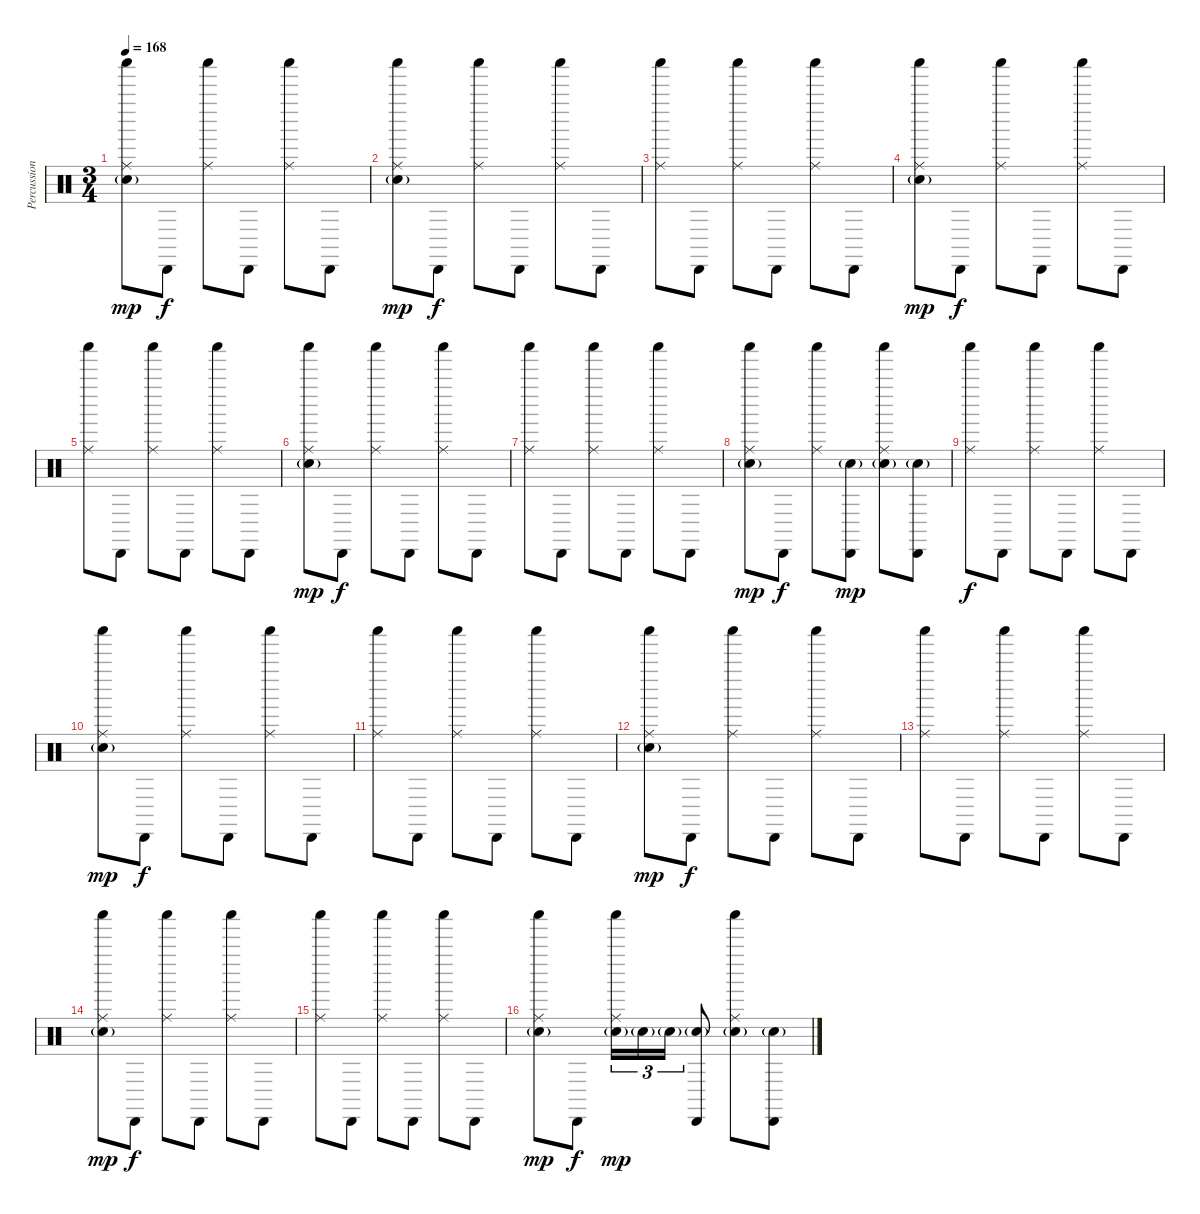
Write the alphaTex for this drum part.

\track ("Percussion" "Percussion") {instrument percussion}
\staff {score}
\articulation defaults
\ts (3 4)
\tempo 168
\clef neutral
\ks c
("Shaker (hit)" "Ride (middle)" "Electric Snare (hit)"{g}).8{dy mp} "Cabasa (hit)".8{dy f} ("Shaker (hit)" "Ride (middle)").8 "Cabasa (hit)".8 ("Shaker (hit)" "Ride (middle)").8 "Cabasa (hit)".8 |
("Shaker (hit)" "Ride (middle)" "Electric Snare (hit)"{g}).8{dy mp} "Cabasa (hit)".8{dy f} ("Shaker (hit)" "Ride (middle)").8 "Cabasa (hit)".8 ("Shaker (hit)" "Ride (middle)").8 "Cabasa (hit)".8 |
("Shaker (hit)" "Ride (middle)").8 "Cabasa (hit)".8 ("Shaker (hit)" "Ride (middle)").8 "Cabasa (hit)".8 ("Shaker (hit)" "Ride (middle)").8 "Cabasa (hit)".8 |
("Shaker (hit)" "Ride (middle)" "Electric Snare (hit)"{g}).8{dy mp} "Cabasa (hit)".8{dy f} ("Shaker (hit)" "Ride (middle)").8 "Cabasa (hit)".8 ("Shaker (hit)" "Ride (middle)").8 "Cabasa (hit)".8 |
("Shaker (hit)" "Ride (middle)").8 "Cabasa (hit)".8 ("Shaker (hit)" "Ride (middle)").8 "Cabasa (hit)".8 ("Shaker (hit)" "Ride (middle)").8 "Cabasa (hit)".8 |
("Shaker (hit)" "Ride (middle)" "Electric Snare (hit)"{g}).8{dy mp} "Cabasa (hit)".8{dy f} ("Shaker (hit)" "Ride (middle)").8 "Cabasa (hit)".8 ("Shaker (hit)" "Ride (middle)").8 "Cabasa (hit)".8 |
("Shaker (hit)" "Ride (middle)").8 "Cabasa (hit)".8 ("Shaker (hit)" "Ride (middle)").8 "Cabasa (hit)".8 ("Shaker (hit)" "Ride (middle)").8 "Cabasa (hit)".8 |
("Shaker (hit)" "Ride (middle)" "Electric Snare (hit)"{g}).8{dy mp} "Cabasa (hit)".8{dy f} ("Shaker (hit)" "Ride (middle)").8 ("Cabasa (hit)" "Electric Snare (hit)"{g}).8{dy mp} ("Shaker (hit)" "Ride (middle)" "Electric Snare (hit)"{g}).8 ("Cabasa (hit)" "Electric Snare (hit)"{g}).8 |
("Shaker (hit)" "Ride (middle)").8{dy f} "Cabasa (hit)".8 ("Shaker (hit)" "Ride (middle)").8 "Cabasa (hit)".8 ("Shaker (hit)" "Ride (middle)").8 "Cabasa (hit)".8 |
("Shaker (hit)" "Ride (middle)" "Electric Snare (hit)"{g}).8{dy mp} "Cabasa (hit)".8{dy f} ("Shaker (hit)" "Ride (middle)").8 "Cabasa (hit)".8 ("Shaker (hit)" "Ride (middle)").8 "Cabasa (hit)".8 |
("Shaker (hit)" "Ride (middle)").8 "Cabasa (hit)".8 ("Shaker (hit)" "Ride (middle)").8 "Cabasa (hit)".8 ("Shaker (hit)" "Ride (middle)").8 "Cabasa (hit)".8 |
("Shaker (hit)" "Ride (middle)" "Electric Snare (hit)"{g}).8{dy mp} "Cabasa (hit)".8{dy f} ("Shaker (hit)" "Ride (middle)").8 "Cabasa (hit)".8 ("Shaker (hit)" "Ride (middle)").8 "Cabasa (hit)".8 |
("Shaker (hit)" "Ride (middle)").8 "Cabasa (hit)".8 ("Shaker (hit)" "Ride (middle)").8 "Cabasa (hit)".8 ("Shaker (hit)" "Ride (middle)").8 "Cabasa (hit)".8 |
("Shaker (hit)" "Ride (middle)" "Electric Snare (hit)"{g}).8{dy mp} "Cabasa (hit)".8{dy f} ("Shaker (hit)" "Ride (middle)").8 "Cabasa (hit)".8 ("Shaker (hit)" "Ride (middle)").8 "Cabasa (hit)".8 |
("Shaker (hit)" "Ride (middle)").8 "Cabasa (hit)".8 ("Shaker (hit)" "Ride (middle)").8 "Cabasa (hit)".8 ("Shaker (hit)" "Ride (middle)").8 "Cabasa (hit)".8 |
("Shaker (hit)" "Ride (middle)" "Electric Snare (hit)"{g}).8{dy mp} "Cabasa (hit)".8{dy f} ("Shaker (hit)" "Ride (middle)" "Electric Snare (hit)"{g}).16{tu (3 2) dy mp} "Electric Snare (hit)"{g}.16{tu (3 2)} "Electric Snare (hit)"{g}.16{tu (3 2)} ("Cabasa (hit)" "Electric Snare (hit)"{g}).8 ("Shaker (hit)" "Ride (middle)" "Electric Snare (hit)"{g}).8 ("Cabasa (hit)" "Electric Snare (hit)"{g}).8
